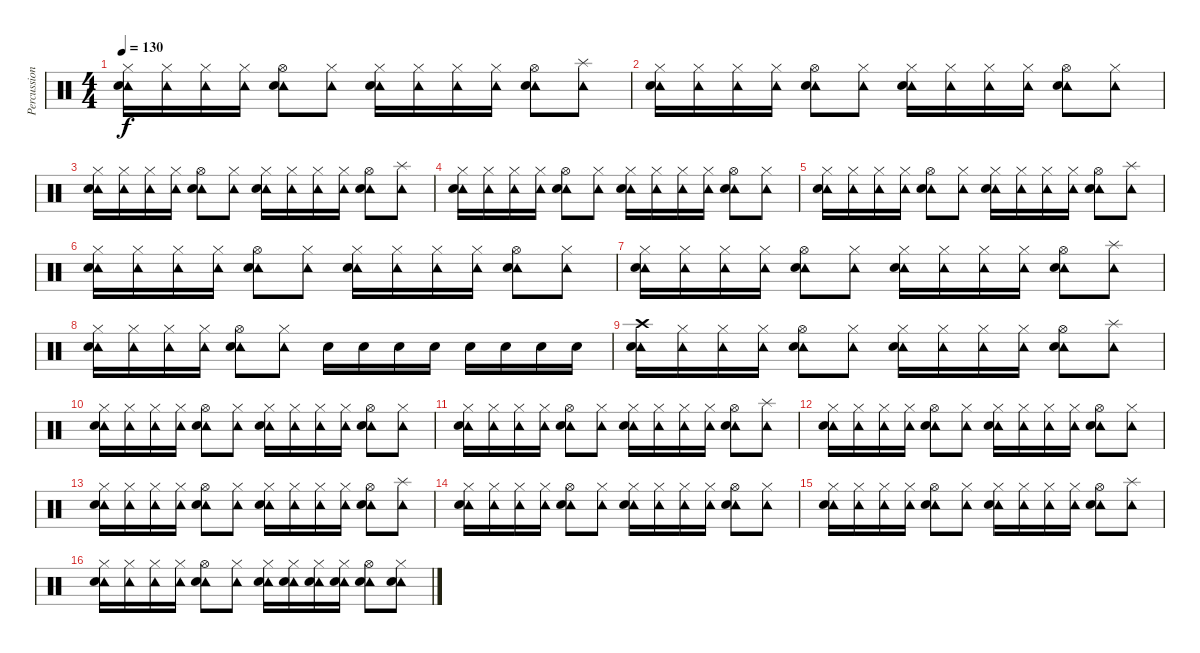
\track ("Percussion" "Percussion") {instrument percussion}
\staff {score}
\articulation defaults
\ts (4 4)
\tempo 130
\clef neutral
\ks c
("Hi-Hat (closed)" "Tambourine (hit)" "Electric Snare (hit)").16{dy f volume 16} ("Hi-Hat (closed)" "Tambourine (hit)").16 ("Hi-Hat (closed)" "Tambourine (hit)").16 ("Hi-Hat (closed)" "Tambourine (hit)").16 ("Hi-Hat (open)" "Tambourine (hit)" "Electric Snare (hit)").8 ("Hi-Hat (closed)" "Tambourine (hit)").8 ("Hi-Hat (closed)" "Tambourine (hit)" "Electric Snare (hit)").16 ("Hi-Hat (closed)" "Tambourine (hit)").16 ("Hi-Hat (closed)" "Tambourine (hit)").16 ("Hi-Hat (closed)" "Tambourine (hit)").16 ("Hi-Hat (open)" "Tambourine (hit)" "Electric Snare (hit)").8 ("Splash (hit)" "Tambourine (hit)").8 |
("Hi-Hat (closed)" "Tambourine (hit)" "Electric Snare (hit)").16 ("Hi-Hat (closed)" "Tambourine (hit)").16 ("Hi-Hat (closed)" "Tambourine (hit)").16 ("Hi-Hat (closed)" "Tambourine (hit)").16 ("Hi-Hat (open)" "Tambourine (hit)" "Electric Snare (hit)").8 ("Hi-Hat (closed)" "Tambourine (hit)").8 ("Hi-Hat (closed)" "Tambourine (hit)" "Electric Snare (hit)").16 ("Hi-Hat (closed)" "Tambourine (hit)").16 ("Hi-Hat (closed)" "Tambourine (hit)").16 ("Hi-Hat (closed)" "Tambourine (hit)").16 ("Hi-Hat (open)" "Tambourine (hit)" "Electric Snare (hit)").8 ("Hi-Hat (closed)" "Tambourine (hit)").8 |
("Hi-Hat (closed)" "Tambourine (hit)" "Electric Snare (hit)").16{volume 16} ("Hi-Hat (closed)" "Tambourine (hit)").16 ("Hi-Hat (closed)" "Tambourine (hit)").16 ("Hi-Hat (closed)" "Tambourine (hit)").16 ("Hi-Hat (open)" "Tambourine (hit)" "Electric Snare (hit)").8 ("Hi-Hat (closed)" "Tambourine (hit)").8 ("Hi-Hat (closed)" "Tambourine (hit)" "Electric Snare (hit)").16 ("Hi-Hat (closed)" "Tambourine (hit)").16 ("Hi-Hat (closed)" "Tambourine (hit)").16 ("Hi-Hat (closed)" "Tambourine (hit)").16 ("Hi-Hat (open)" "Tambourine (hit)" "Electric Snare (hit)").8 ("Splash (hit)" "Tambourine (hit)").8 |
("Hi-Hat (closed)" "Tambourine (hit)" "Electric Snare (hit)").16 ("Hi-Hat (closed)" "Tambourine (hit)").16 ("Hi-Hat (closed)" "Tambourine (hit)").16 ("Hi-Hat (closed)" "Tambourine (hit)").16 ("Hi-Hat (open)" "Tambourine (hit)" "Electric Snare (hit)").8 ("Hi-Hat (closed)" "Tambourine (hit)").8 ("Hi-Hat (closed)" "Tambourine (hit)" "Electric Snare (hit)").16 ("Hi-Hat (closed)" "Tambourine (hit)").16 ("Hi-Hat (closed)" "Tambourine (hit)").16 ("Hi-Hat (closed)" "Tambourine (hit)").16 ("Hi-Hat (open)" "Tambourine (hit)" "Electric Snare (hit)").8 ("Hi-Hat (closed)" "Tambourine (hit)").8 |
("Hi-Hat (closed)" "Tambourine (hit)" "Electric Snare (hit)").16{volume 16} ("Hi-Hat (closed)" "Tambourine (hit)").16 ("Hi-Hat (closed)" "Tambourine (hit)").16 ("Hi-Hat (closed)" "Tambourine (hit)").16 ("Hi-Hat (open)" "Tambourine (hit)" "Electric Snare (hit)").8 ("Hi-Hat (closed)" "Tambourine (hit)").8 ("Hi-Hat (closed)" "Tambourine (hit)" "Electric Snare (hit)").16 ("Hi-Hat (closed)" "Tambourine (hit)").16 ("Hi-Hat (closed)" "Tambourine (hit)").16 ("Hi-Hat (closed)" "Tambourine (hit)").16 ("Hi-Hat (open)" "Tambourine (hit)" "Electric Snare (hit)").8 ("Splash (hit)" "Tambourine (hit)").8 |
("Hi-Hat (closed)" "Tambourine (hit)" "Electric Snare (hit)").16 ("Hi-Hat (closed)" "Tambourine (hit)").16 ("Hi-Hat (closed)" "Tambourine (hit)").16 ("Hi-Hat (closed)" "Tambourine (hit)").16 ("Hi-Hat (open)" "Tambourine (hit)" "Electric Snare (hit)").8 ("Hi-Hat (closed)" "Tambourine (hit)").8 ("Hi-Hat (closed)" "Tambourine (hit)" "Electric Snare (hit)").16 ("Hi-Hat (closed)" "Tambourine (hit)").16 ("Hi-Hat (closed)" "Tambourine (hit)").16 ("Hi-Hat (closed)" "Tambourine (hit)").16 ("Hi-Hat (open)" "Tambourine (hit)" "Electric Snare (hit)").8 ("Hi-Hat (closed)" "Tambourine (hit)").8 |
("Hi-Hat (closed)" "Tambourine (hit)" "Electric Snare (hit)").16 ("Hi-Hat (closed)" "Tambourine (hit)").16 ("Hi-Hat (closed)" "Tambourine (hit)").16 ("Hi-Hat (closed)" "Tambourine (hit)").16 ("Hi-Hat (open)" "Tambourine (hit)" "Electric Snare (hit)").8 ("Hi-Hat (closed)" "Tambourine (hit)").8 ("Hi-Hat (closed)" "Tambourine (hit)" "Electric Snare (hit)").16 ("Hi-Hat (closed)" "Tambourine (hit)").16 ("Hi-Hat (closed)" "Tambourine (hit)").16 ("Hi-Hat (closed)" "Tambourine (hit)").16 ("Hi-Hat (open)" "Tambourine (hit)" "Electric Snare (hit)").8 ("Splash (hit)" "Tambourine (hit)").8 |
("Hi-Hat (closed)" "Tambourine (hit)" "Electric Snare (hit)").16 ("Hi-Hat (closed)" "Tambourine (hit)").16 ("Hi-Hat (closed)" "Tambourine (hit)").16 ("Hi-Hat (closed)" "Tambourine (hit)").16 ("Hi-Hat (open)" "Tambourine (hit)" "Electric Snare (hit)").8 ("Hi-Hat (closed)" "Tambourine (hit)").8 "Snare (hit) 2".16 "Snare (hit) 2".16 "Snare (hit) 2".16 "Snare (hit) 2".16 "Snare (hit) 2".16 "Snare (hit) 2".16 "Snare (hit) 2".16 "Snare (hit) 2".16 |
("Crash high (hit)" "Tambourine (hit)" "Electric Snare (hit)").16{volume 16} ("Hi-Hat (closed)" "Tambourine (hit)").16 ("Hi-Hat (closed)" "Tambourine (hit)").16 ("Hi-Hat (closed)" "Tambourine (hit)").16 ("Hi-Hat (open)" "Tambourine (hit)" "Electric Snare (hit)").8 ("Hi-Hat (closed)" "Tambourine (hit)").8 ("Hi-Hat (closed)" "Tambourine (hit)" "Electric Snare (hit)").16 ("Hi-Hat (closed)" "Tambourine (hit)").16 ("Hi-Hat (closed)" "Tambourine (hit)").16 ("Hi-Hat (closed)" "Tambourine (hit)").16 ("Hi-Hat (open)" "Tambourine (hit)" "Electric Snare (hit)").8 ("Splash (hit)" "Tambourine (hit)").8 |
("Hi-Hat (closed)" "Tambourine (hit)" "Electric Snare (hit)").16 ("Hi-Hat (closed)" "Tambourine (hit)").16 ("Hi-Hat (closed)" "Tambourine (hit)").16 ("Hi-Hat (closed)" "Tambourine (hit)").16 ("Hi-Hat (open)" "Tambourine (hit)" "Electric Snare (hit)").8 ("Hi-Hat (closed)" "Tambourine (hit)").8 ("Hi-Hat (closed)" "Tambourine (hit)" "Electric Snare (hit)").16 ("Hi-Hat (closed)" "Tambourine (hit)").16 ("Hi-Hat (closed)" "Tambourine (hit)").16 ("Hi-Hat (closed)" "Tambourine (hit)").16 ("Hi-Hat (open)" "Tambourine (hit)" "Electric Snare (hit)").8 ("Hi-Hat (closed)" "Tambourine (hit)").8 |
("Hi-Hat (closed)" "Tambourine (hit)" "Electric Snare (hit)").16{volume 16} ("Hi-Hat (closed)" "Tambourine (hit)").16 ("Hi-Hat (closed)" "Tambourine (hit)").16 ("Hi-Hat (closed)" "Tambourine (hit)").16 ("Hi-Hat (open)" "Tambourine (hit)" "Electric Snare (hit)").8 ("Hi-Hat (closed)" "Tambourine (hit)").8 ("Hi-Hat (closed)" "Tambourine (hit)" "Electric Snare (hit)").16 ("Hi-Hat (closed)" "Tambourine (hit)").16 ("Hi-Hat (closed)" "Tambourine (hit)").16 ("Hi-Hat (closed)" "Tambourine (hit)").16 ("Hi-Hat (open)" "Tambourine (hit)" "Electric Snare (hit)").8 ("Splash (hit)" "Tambourine (hit)").8 |
("Hi-Hat (closed)" "Tambourine (hit)" "Electric Snare (hit)").16 ("Hi-Hat (closed)" "Tambourine (hit)").16 ("Hi-Hat (closed)" "Tambourine (hit)").16 ("Hi-Hat (closed)" "Tambourine (hit)").16 ("Hi-Hat (open)" "Tambourine (hit)" "Electric Snare (hit)").8 ("Hi-Hat (closed)" "Tambourine (hit)").8 ("Hi-Hat (closed)" "Tambourine (hit)" "Electric Snare (hit)").16 ("Hi-Hat (closed)" "Tambourine (hit)").16 ("Hi-Hat (closed)" "Tambourine (hit)").16 ("Hi-Hat (closed)" "Tambourine (hit)").16 ("Hi-Hat (open)" "Tambourine (hit)" "Electric Snare (hit)").8 ("Hi-Hat (closed)" "Tambourine (hit)").8 |
("Hi-Hat (closed)" "Tambourine (hit)" "Electric Snare (hit)").16{volume 16} ("Hi-Hat (closed)" "Tambourine (hit)").16 ("Hi-Hat (closed)" "Tambourine (hit)").16 ("Hi-Hat (closed)" "Tambourine (hit)").16 ("Hi-Hat (open)" "Tambourine (hit)" "Electric Snare (hit)").8 ("Hi-Hat (closed)" "Tambourine (hit)").8 ("Hi-Hat (closed)" "Tambourine (hit)" "Electric Snare (hit)").16 ("Hi-Hat (closed)" "Tambourine (hit)").16 ("Hi-Hat (closed)" "Tambourine (hit)").16 ("Hi-Hat (closed)" "Tambourine (hit)").16 ("Hi-Hat (open)" "Tambourine (hit)" "Electric Snare (hit)").8 ("Splash (hit)" "Tambourine (hit)").8 |
("Hi-Hat (closed)" "Tambourine (hit)" "Electric Snare (hit)").16 ("Hi-Hat (closed)" "Tambourine (hit)").16 ("Hi-Hat (closed)" "Tambourine (hit)").16 ("Hi-Hat (closed)" "Tambourine (hit)").16 ("Hi-Hat (open)" "Tambourine (hit)" "Electric Snare (hit)").8 ("Hi-Hat (closed)" "Tambourine (hit)").8 ("Hi-Hat (closed)" "Tambourine (hit)" "Electric Snare (hit)").16 ("Hi-Hat (closed)" "Tambourine (hit)").16 ("Hi-Hat (closed)" "Tambourine (hit)").16 ("Hi-Hat (closed)" "Tambourine (hit)").16 ("Hi-Hat (open)" "Tambourine (hit)" "Electric Snare (hit)").8 ("Hi-Hat (closed)" "Tambourine (hit)").8 |
("Hi-Hat (closed)" "Tambourine (hit)" "Electric Snare (hit)").16 ("Hi-Hat (closed)" "Tambourine (hit)").16 ("Hi-Hat (closed)" "Tambourine (hit)").16 ("Hi-Hat (closed)" "Tambourine (hit)").16 ("Hi-Hat (open)" "Tambourine (hit)" "Electric Snare (hit)").8 ("Hi-Hat (closed)" "Tambourine (hit)").8 ("Hi-Hat (closed)" "Tambourine (hit)" "Electric Snare (hit)").16 ("Hi-Hat (closed)" "Tambourine (hit)").16 ("Hi-Hat (closed)" "Tambourine (hit)").16 ("Hi-Hat (closed)" "Tambourine (hit)").16 ("Hi-Hat (open)" "Tambourine (hit)" "Electric Snare (hit)").8 ("Splash (hit)" "Tambourine (hit)").8 |
("Hi-Hat (closed)" "Tambourine (hit)" "Electric Snare (hit)").16 ("Hi-Hat (closed)" "Tambourine (hit)").16 ("Hi-Hat (closed)" "Tambourine (hit)").16 ("Hi-Hat (closed)" "Tambourine (hit)").16 ("Hi-Hat (open)" "Tambourine (hit)" "Electric Snare (hit)").8 ("Hi-Hat (closed)" "Tambourine (hit)").8 ("Hi-Hat (closed)" "Tambourine (hit)" "Electric Snare (hit)").16 ("Hi-Hat (closed)" "Tambourine (hit)" "Electric Snare (hit)").16 ("Hi-Hat (closed)" "Tambourine (hit)" "Electric Snare (hit)").16 ("Hi-Hat (closed)" "Tambourine (hit)" "Electric Snare (hit)").16 ("Hi-Hat (open)" "Tambourine (hit)" "Electric Snare (hit)").8 ("Hi-Hat (closed)" "Tambourine (hit)" "Electric Snare (hit)").8
